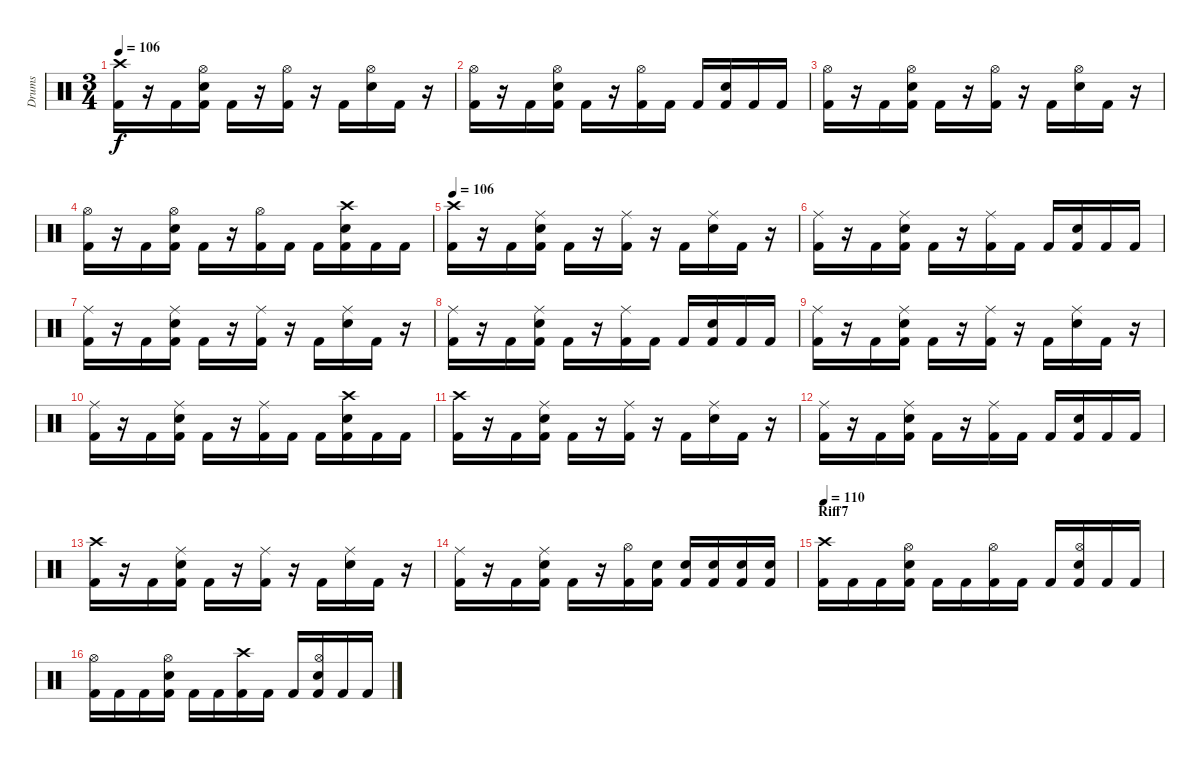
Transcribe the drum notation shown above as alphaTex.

\track ("Drums" "Drums") {instrument percussion}
\staff {score}
\articulation defaults
\ts (3 4)
\tempo 106
\clef neutral
\ks c
("Crash high (hit)" "Kick (hit) 2").16{dy f} r.16 "Kick (hit) 2".16 ("Hi-Hat (open)" "Snare (hit) 2" "Kick (hit) 2").16 "Kick (hit) 2".16 r.16 ("Hi-Hat (open)" "Kick (hit) 2").16 r.16 "Kick (hit) 2".16 ("Hi-Hat (open)" "Snare (hit) 2").16 "Kick (hit) 2".16 r.16 |
("Hi-Hat (open)" "Kick (hit) 2").16 r.16 "Kick (hit) 2".16 ("Hi-Hat (open)" "Snare (hit) 2" "Kick (hit) 2").16 "Kick (hit) 2".16 r.16 ("Hi-Hat (open)" "Kick (hit) 2").16 "Kick (hit) 2".16 "Kick (hit) 2".16 ("Snare (hit) 2" "Kick (hit) 2").16 "Kick (hit) 2".16 "Kick (hit) 2".16 |
("Hi-Hat (open)" "Kick (hit) 2").16 r.16 "Kick (hit) 2".16 ("Hi-Hat (open)" "Snare (hit) 2" "Kick (hit) 2").16 "Kick (hit) 2".16 r.16 ("Hi-Hat (open)" "Kick (hit) 2").16 r.16 "Kick (hit) 2".16 ("Hi-Hat (open)" "Snare (hit) 2").16 "Kick (hit) 2".16 r.16 |
("Hi-Hat (open)" "Kick (hit) 2").16 r.16 "Kick (hit) 2".16 ("Hi-Hat (open)" "Snare (hit) 2" "Kick (hit) 2").16 "Kick (hit) 2".16 r.16 ("Hi-Hat (open)" "Kick (hit) 2").16 "Kick (hit) 2".16 "Kick (hit) 2".16 ("Crash high (hit)" "Snare (hit) 2" "Kick (hit) 2").16 "Kick (hit) 2".16 "Kick (hit) 2".16 |
\tempo 106
("Crash high (hit)" "Kick (hit) 2").16 r.16 "Kick (hit) 2".16 ("Ride (middle)" "Snare (hit) 2" "Kick (hit) 2").16 "Kick (hit) 2".16 r.16 ("Ride (middle)" "Kick (hit) 2").16 r.16 "Kick (hit) 2".16 ("Ride (middle)" "Snare (hit) 2").16 "Kick (hit) 2".16 r.16 |
("Ride (middle)" "Kick (hit) 2").16 r.16 "Kick (hit) 2".16 ("Ride (middle)" "Snare (hit) 2" "Kick (hit) 2").16 "Kick (hit) 2".16 r.16 ("Ride (middle)" "Kick (hit) 2").16 "Kick (hit) 2".16 "Kick (hit) 2".16 ("Snare (hit) 2" "Kick (hit) 2").16 "Kick (hit) 2".16 "Kick (hit) 2".16 |
("Ride (middle)" "Kick (hit) 2").16 r.16 "Kick (hit) 2".16 ("Ride (middle)" "Snare (hit) 2" "Kick (hit) 2").16 "Kick (hit) 2".16 r.16 ("Ride (middle)" "Kick (hit) 2").16 r.16 "Kick (hit) 2".16 ("Ride (middle)" "Snare (hit) 2").16 "Kick (hit) 2".16 r.16 |
("Ride (middle)" "Kick (hit) 2").16 r.16 "Kick (hit) 2".16 ("Ride (middle)" "Snare (hit) 2" "Kick (hit) 2").16 "Kick (hit) 2".16 r.16 ("Ride (middle)" "Kick (hit) 2").16 "Kick (hit) 2".16 "Kick (hit) 2".16 ("Snare (hit) 2" "Kick (hit) 2").16 "Kick (hit) 2".16 "Kick (hit) 2".16 |
("Ride (middle)" "Kick (hit) 2").16 r.16 "Kick (hit) 2".16 ("Ride (middle)" "Snare (hit) 2" "Kick (hit) 2").16 "Kick (hit) 2".16 r.16 ("Ride (middle)" "Kick (hit) 2").16 r.16 "Kick (hit) 2".16 ("Ride (middle)" "Snare (hit) 2").16 "Kick (hit) 2".16 r.16 |
("Ride (middle)" "Kick (hit) 2").16 r.16 "Kick (hit) 2".16 ("Ride (middle)" "Snare (hit) 2" "Kick (hit) 2").16 "Kick (hit) 2".16 r.16 ("Ride (middle)" "Kick (hit) 2").16 "Kick (hit) 2".16 "Kick (hit) 2".16 ("Crash high (hit)" "Snare (hit) 2" "Kick (hit) 2").16 "Kick (hit) 2".16 "Kick (hit) 2".16 |
("Crash high (hit)" "Kick (hit) 2").16 r.16 "Kick (hit) 2".16 ("Ride (middle)" "Snare (hit) 2" "Kick (hit) 2").16 "Kick (hit) 2".16 r.16 ("Ride (middle)" "Kick (hit) 2").16 r.16 "Kick (hit) 2".16 ("Ride (middle)" "Snare (hit) 2").16 "Kick (hit) 2".16 r.16 |
("Ride (middle)" "Kick (hit) 2").16 r.16 "Kick (hit) 2".16 ("Ride (middle)" "Snare (hit) 2" "Kick (hit) 2").16 "Kick (hit) 2".16 r.16 ("Ride (middle)" "Kick (hit) 2").16 "Kick (hit) 2".16 "Kick (hit) 2".16 ("Snare (hit) 2" "Kick (hit) 2").16 "Kick (hit) 2".16 "Kick (hit) 2".16 |
("Crash high (hit)" "Kick (hit) 2").16 r.16 "Kick (hit) 2".16 ("Ride (middle)" "Snare (hit) 2" "Kick (hit) 2").16 "Kick (hit) 2".16 r.16 ("Ride (middle)" "Kick (hit) 2").16 r.16 "Kick (hit) 2".16 ("Ride (middle)" "Snare (hit) 2").16 "Kick (hit) 2".16 r.16 |
("Ride (middle)" "Kick (hit) 2").16 r.16 "Kick (hit) 2".16 ("Ride (middle)" "Snare (hit) 2" "Kick (hit) 2").16 "Kick (hit) 2".16 r.16 ("Hi-Hat (open)" "Kick (hit) 2").16 ("Snare (hit) 2" "Kick (hit) 2").16 ("Snare (hit) 2" "Kick (hit) 2").16 ("Snare (hit) 2" "Kick (hit) 2").16 ("Snare (hit) 2" "Kick (hit) 2").16 ("Snare (hit) 2" "Kick (hit) 2").16 |
\section ("" "Riff7")
\tempo 110
("Crash high (hit)" "Kick (hit) 2").16 "Kick (hit) 2".16 "Kick (hit) 2".16 ("Hi-Hat (open)" "Snare (hit) 2" "Kick (hit) 2").16 "Kick (hit) 2".16 "Kick (hit) 2".16 ("Hi-Hat (open)" "Kick (hit) 2").16 "Kick (hit) 2".16 "Kick (hit) 2".16 ("Hi-Hat (open)" "Snare (hit) 2" "Kick (hit) 2").16 "Kick (hit) 2".16 "Kick (hit) 2".16 |
("Hi-Hat (open)" "Kick (hit) 2").16 "Kick (hit) 2".16 "Kick (hit) 2".16 ("Hi-Hat (open)" "Snare (hit) 2" "Kick (hit) 2").16 "Kick (hit) 2".16 "Kick (hit) 2".16 ("Crash high (hit)" "Kick (hit) 2").16 "Kick (hit) 2".16 "Kick (hit) 2".16 ("Hi-Hat (open)" "Snare (hit) 2" "Kick (hit) 2").16 "Kick (hit) 2".16 "Kick (hit) 2".16
